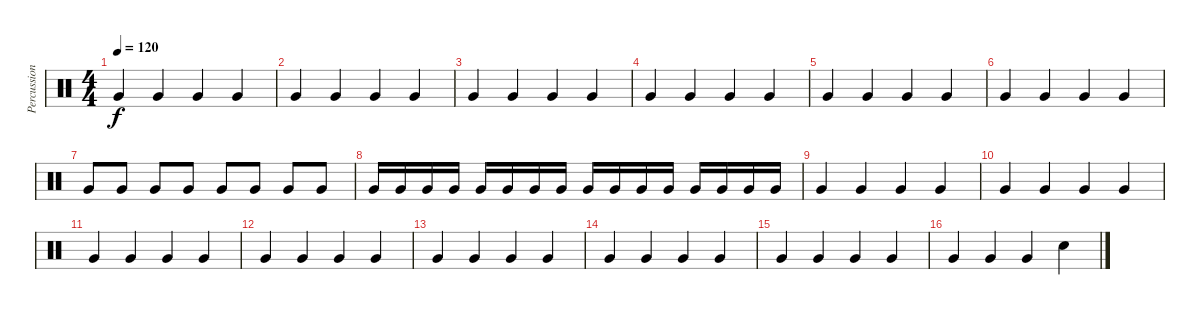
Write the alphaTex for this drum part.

\track ("Percussion" "Percussion") {instrument percussion}
\staff {score}
\articulation defaults
\ts (4 4)
\tempo 120
\clef neutral
\ks c "Very Low Tom (hit)".4{dy f} "Very Low Tom (hit)".4 "Very Low Tom (hit)".4 "Very Low Tom (hit)".4
|
"Very Low Tom (hit)".4 "Very Low Tom (hit)".4 "Very Low Tom (hit)".4 "Very Low Tom (hit)".4 |
"Very Low Tom (hit)".4 "Very Low Tom (hit)".4 "Very Low Tom (hit)".4 "Very Low Tom (hit)".4 |
"Very Low Tom (hit)".4 "Very Low Tom (hit)".4 "Very Low Tom (hit)".4 "Very Low Tom (hit)".4 |
"Very Low Tom (hit)".4 "Very Low Tom (hit)".4 "Very Low Tom (hit)".4 "Very Low Tom (hit)".4 |
"Very Low Tom (hit)".4 "Very Low Tom (hit)".4 "Very Low Tom (hit)".4 "Very Low Tom (hit)".4 |
"Very Low Tom (hit)".8 "Very Low Tom (hit)".8 "Very Low Tom (hit)".8 "Very Low Tom (hit)".8 "Very Low Tom (hit)".8 "Very Low Tom (hit)".8 "Very Low Tom (hit)".8 "Very Low Tom (hit)".8 |
"Very Low Tom (hit)".16 "Very Low Tom (hit)".16 "Very Low Tom (hit)".16 "Very Low Tom (hit)".16 "Very Low Tom (hit)".16 "Very Low Tom (hit)".16 "Very Low Tom (hit)".16 "Very Low Tom (hit)".16 "Very Low Tom (hit)".16 "Very Low Tom (hit)".16 "Very Low Tom (hit)".16 "Very Low Tom (hit)".16 "Very Low Tom (hit)".16 "Very Low Tom (hit)".16 "Very Low Tom (hit)".16 "Very Low Tom (hit)".16 |
"Very Low Tom (hit)".4 "Very Low Tom (hit)".4 "Very Low Tom (hit)".4 "Very Low Tom (hit)".4 |
"Very Low Tom (hit)".4 "Very Low Tom (hit)".4 "Very Low Tom (hit)".4 "Very Low Tom (hit)".4 |
"Very Low Tom (hit)".4 "Very Low Tom (hit)".4 "Very Low Tom (hit)".4 "Very Low Tom (hit)".4 |
"Very Low Tom (hit)".4 "Very Low Tom (hit)".4 "Very Low Tom (hit)".4 "Very Low Tom (hit)".4 |
"Very Low Tom (hit)".4 "Very Low Tom (hit)".4 "Very Low Tom (hit)".4 "Very Low Tom (hit)".4 |
"Very Low Tom (hit)".4 "Very Low Tom (hit)".4 "Very Low Tom (hit)".4 "Very Low Tom (hit)".4 |
"Very Low Tom (hit)".4 "Very Low Tom (hit)".4 "Very Low Tom (hit)".4 "Very Low Tom (hit)".4 |
"Very Low Tom (hit)".4 "Very Low Tom (hit)".4 "Very Low Tom (hit)".4 "Hand Clap (hit)".4
